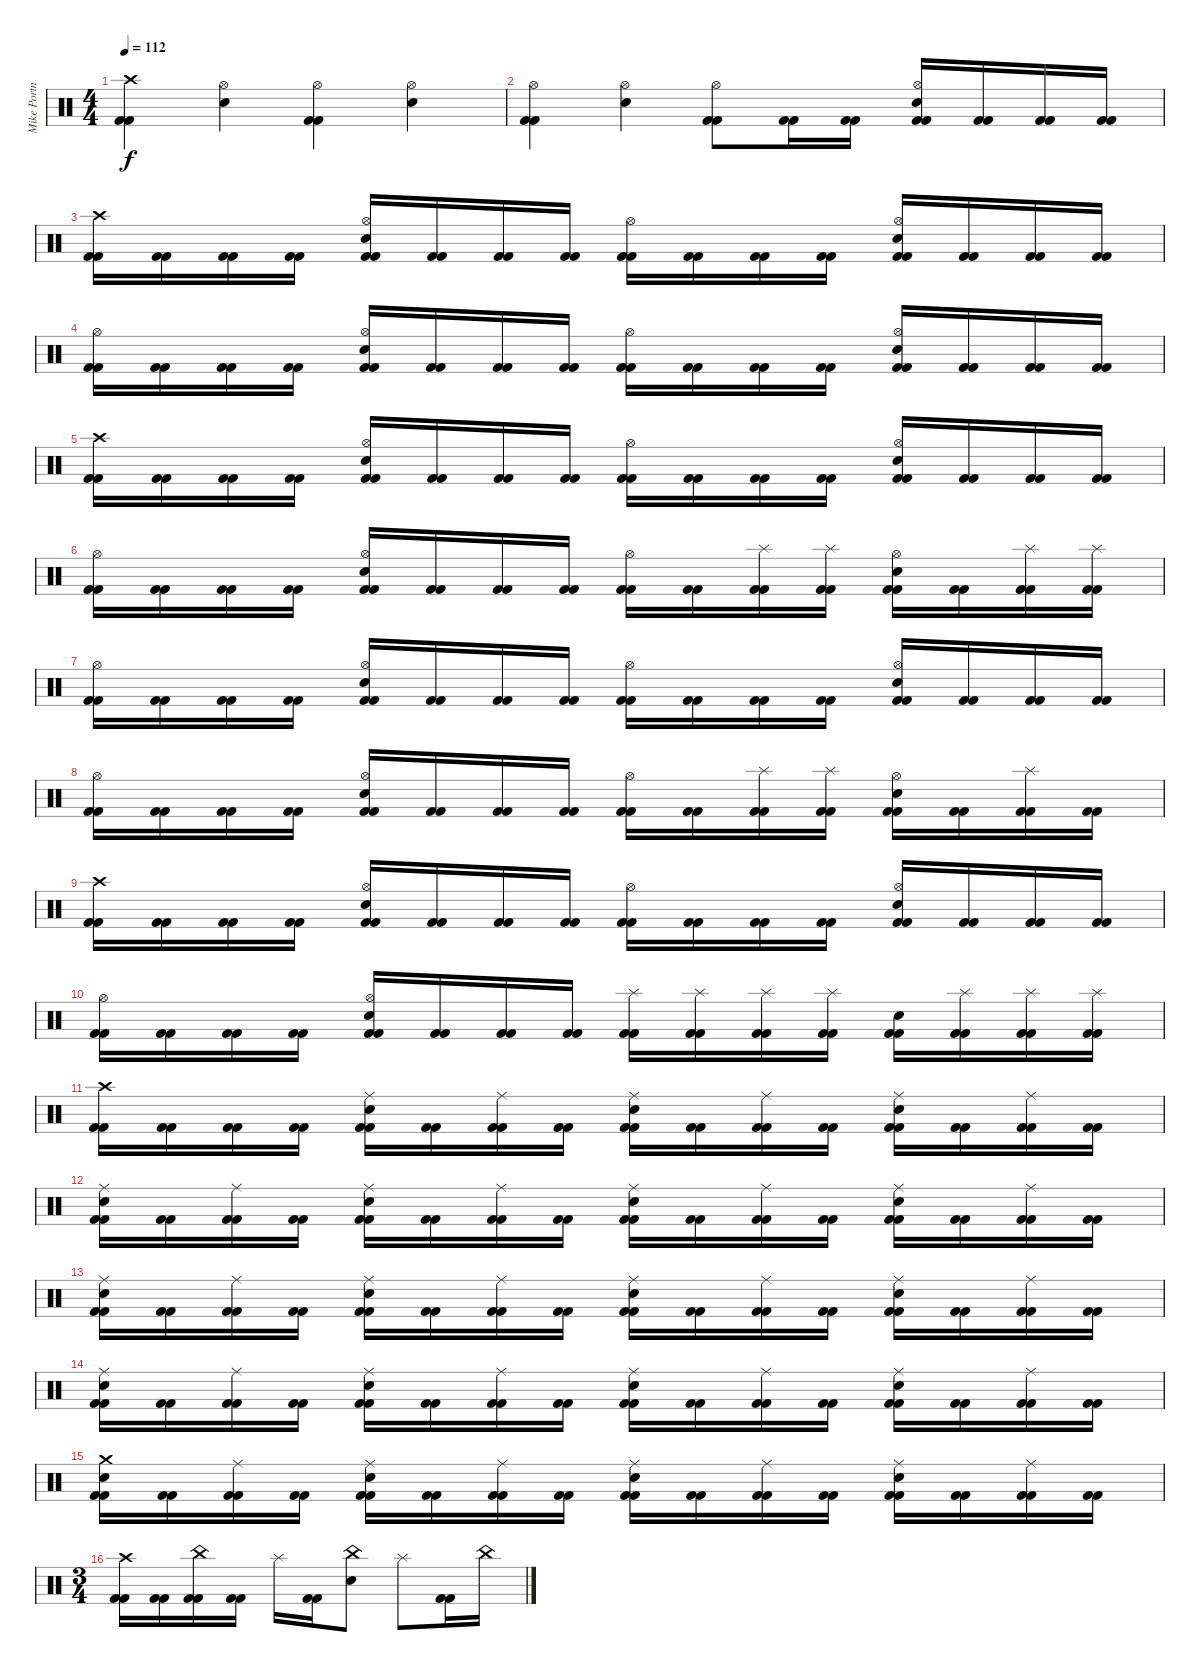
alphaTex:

\track ("Mike Portnoy - Drum" "Mike Portn") {instrument percussion}
\staff {score}
\articulation defaults
\ts (4 4)
\tempo 112
\clef neutral
\ks c
("Crash high (hit)" "Kick (hit) 2" "Kick (hit) 2").4{dy f} ("Hi-Hat (open)" "Snare (hit) 2").4 ("Hi-Hat (open)" "Kick (hit) 2" "Kick (hit) 2").4 ("Hi-Hat (open)" "Snare (hit) 2").4 |
("Hi-Hat (open)" "Kick (hit) 2" "Kick (hit) 2").4 ("Hi-Hat (open)" "Snare (hit) 2").4 ("Hi-Hat (open)" "Kick (hit) 2" "Kick (hit) 2").8 ("Kick (hit) 2" "Kick (hit) 2").16 ("Kick (hit) 2" "Kick (hit) 2").16 ("Hi-Hat (open)" "Snare (hit) 2" "Kick (hit) 2" "Kick (hit) 2").16 ("Kick (hit) 2" "Kick (hit) 2").16 ("Kick (hit) 2" "Kick (hit) 2").16 ("Kick (hit) 2" "Kick (hit) 2").16 |
("Crash high (hit)" "Kick (hit) 2" "Kick (hit) 2").16 ("Kick (hit) 2" "Kick (hit) 2").16 ("Kick (hit) 2" "Kick (hit) 2").16 ("Kick (hit) 2" "Kick (hit) 2").16 ("Hi-Hat (open)" "Snare (hit) 2" "Kick (hit) 2" "Kick (hit) 2").16 ("Kick (hit) 2" "Kick (hit) 2").16 ("Kick (hit) 2" "Kick (hit) 2").16 ("Kick (hit) 2" "Kick (hit) 2").16 ("Hi-Hat (open)" "Kick (hit) 2" "Kick (hit) 2").16 ("Kick (hit) 2" "Kick (hit) 2").16 ("Kick (hit) 2" "Kick (hit) 2").16 ("Kick (hit) 2" "Kick (hit) 2").16 ("Hi-Hat (open)" "Snare (hit) 2" "Kick (hit) 2" "Kick (hit) 2").16 ("Kick (hit) 2" "Kick (hit) 2").16 ("Kick (hit) 2" "Kick (hit) 2").16 ("Kick (hit) 2" "Kick (hit) 2").16 |
("Hi-Hat (open)" "Kick (hit) 2" "Kick (hit) 2").16 ("Kick (hit) 2" "Kick (hit) 2").16 ("Kick (hit) 2" "Kick (hit) 2").16 ("Kick (hit) 2" "Kick (hit) 2").16 ("Hi-Hat (open)" "Snare (hit) 2" "Kick (hit) 2" "Kick (hit) 2").16 ("Kick (hit) 2" "Kick (hit) 2").16 ("Kick (hit) 2" "Kick (hit) 2").16 ("Kick (hit) 2" "Kick (hit) 2").16 ("Hi-Hat (open)" "Kick (hit) 2" "Kick (hit) 2").16 ("Kick (hit) 2" "Kick (hit) 2").16 ("Kick (hit) 2" "Kick (hit) 2").16 ("Kick (hit) 2" "Kick (hit) 2").16 ("Hi-Hat (open)" "Snare (hit) 2" "Kick (hit) 2" "Kick (hit) 2").16 ("Kick (hit) 2" "Kick (hit) 2").16 ("Kick (hit) 2" "Kick (hit) 2").16 ("Kick (hit) 2" "Kick (hit) 2").16 |
("Crash high (hit)" "Kick (hit) 2" "Kick (hit) 2").16 ("Kick (hit) 2" "Kick (hit) 2").16 ("Kick (hit) 2" "Kick (hit) 2").16 ("Kick (hit) 2" "Kick (hit) 2").16 ("Hi-Hat (open)" "Snare (hit) 2" "Kick (hit) 2" "Kick (hit) 2").16 ("Kick (hit) 2" "Kick (hit) 2").16 ("Kick (hit) 2" "Kick (hit) 2").16 ("Kick (hit) 2" "Kick (hit) 2").16 ("Hi-Hat (open)" "Kick (hit) 2" "Kick (hit) 2").16 ("Kick (hit) 2" "Kick (hit) 2").16 ("Kick (hit) 2" "Kick (hit) 2").16 ("Kick (hit) 2" "Kick (hit) 2").16 ("Hi-Hat (open)" "Snare (hit) 2" "Kick (hit) 2" "Kick (hit) 2").16 ("Kick (hit) 2" "Kick (hit) 2").16 ("Kick (hit) 2" "Kick (hit) 2").16 ("Kick (hit) 2" "Kick (hit) 2").16 |
("Hi-Hat (open)" "Kick (hit) 2" "Kick (hit) 2").16 ("Kick (hit) 2" "Kick (hit) 2").16 ("Kick (hit) 2" "Kick (hit) 2").16 ("Kick (hit) 2" "Kick (hit) 2").16 ("Hi-Hat (open)" "Snare (hit) 2" "Kick (hit) 2" "Kick (hit) 2").16 ("Kick (hit) 2" "Kick (hit) 2").16 ("Kick (hit) 2" "Kick (hit) 2").16 ("Kick (hit) 2" "Kick (hit) 2").16 ("Hi-Hat (open)" "Kick (hit) 2" "Kick (hit) 2").16 ("Kick (hit) 2" "Kick (hit) 2").16 ("Splash (hit)" "Kick (hit) 2" "Kick (hit) 2").16 ("Splash (hit)" "Kick (hit) 2" "Kick (hit) 2").16 ("Hi-Hat (open)" "Snare (hit) 2" "Kick (hit) 2" "Kick (hit) 2").16 ("Kick (hit) 2" "Kick (hit) 2").16 ("Splash (hit)" "Kick (hit) 2" "Kick (hit) 2").16 ("Splash (hit)" "Kick (hit) 2" "Kick (hit) 2").16 |
("Hi-Hat (open)" "Kick (hit) 2" "Kick (hit) 2").16 ("Kick (hit) 2" "Kick (hit) 2").16 ("Kick (hit) 2" "Kick (hit) 2").16 ("Kick (hit) 2" "Kick (hit) 2").16 ("Hi-Hat (open)" "Snare (hit) 2" "Kick (hit) 2" "Kick (hit) 2").16 ("Kick (hit) 2" "Kick (hit) 2").16 ("Kick (hit) 2" "Kick (hit) 2").16 ("Kick (hit) 2" "Kick (hit) 2").16 ("Hi-Hat (open)" "Kick (hit) 2" "Kick (hit) 2").16 ("Kick (hit) 2" "Kick (hit) 2").16 ("Kick (hit) 2" "Kick (hit) 2").16 ("Kick (hit) 2" "Kick (hit) 2").16 ("Hi-Hat (open)" "Snare (hit) 2" "Kick (hit) 2" "Kick (hit) 2").16 ("Kick (hit) 2" "Kick (hit) 2").16 ("Kick (hit) 2" "Kick (hit) 2").16 ("Kick (hit) 2" "Kick (hit) 2").16 |
("Hi-Hat (open)" "Kick (hit) 2" "Kick (hit) 2").16 ("Kick (hit) 2" "Kick (hit) 2").16 ("Kick (hit) 2" "Kick (hit) 2").16 ("Kick (hit) 2" "Kick (hit) 2").16 ("Hi-Hat (open)" "Snare (hit) 2" "Kick (hit) 2" "Kick (hit) 2").16 ("Kick (hit) 2" "Kick (hit) 2").16 ("Kick (hit) 2" "Kick (hit) 2").16 ("Kick (hit) 2" "Kick (hit) 2").16 ("Hi-Hat (open)" "Kick (hit) 2" "Kick (hit) 2").16 ("Kick (hit) 2" "Kick (hit) 2").16 ("Splash (hit)" "Kick (hit) 2" "Kick (hit) 2").16 ("Splash (hit)" "Kick (hit) 2" "Kick (hit) 2").16 ("Hi-Hat (open)" "Snare (hit) 2" "Kick (hit) 2" "Kick (hit) 2").16 ("Kick (hit) 2" "Kick (hit) 2").16 ("Splash (hit)" "Kick (hit) 2" "Kick (hit) 2").16 ("Kick (hit) 2" "Kick (hit) 2").16 |
("Crash high (hit)" "Kick (hit) 2" "Kick (hit) 2").16 ("Kick (hit) 2" "Kick (hit) 2").16 ("Kick (hit) 2" "Kick (hit) 2").16 ("Kick (hit) 2" "Kick (hit) 2").16 ("Hi-Hat (open)" "Snare (hit) 2" "Kick (hit) 2" "Kick (hit) 2").16 ("Kick (hit) 2" "Kick (hit) 2").16 ("Kick (hit) 2" "Kick (hit) 2").16 ("Kick (hit) 2" "Kick (hit) 2").16 ("Hi-Hat (open)" "Kick (hit) 2" "Kick (hit) 2").16 ("Kick (hit) 2" "Kick (hit) 2").16 ("Kick (hit) 2" "Kick (hit) 2").16 ("Kick (hit) 2" "Kick (hit) 2").16 ("Hi-Hat (open)" "Snare (hit) 2" "Kick (hit) 2" "Kick (hit) 2").16 ("Kick (hit) 2" "Kick (hit) 2").16 ("Kick (hit) 2" "Kick (hit) 2").16 ("Kick (hit) 2" "Kick (hit) 2").16 |
("Hi-Hat (open)" "Kick (hit) 2" "Kick (hit) 2").16 ("Kick (hit) 2" "Kick (hit) 2").16 ("Kick (hit) 2" "Kick (hit) 2").16 ("Kick (hit) 2" "Kick (hit) 2").16 ("Hi-Hat (open)" "Snare (hit) 2" "Kick (hit) 2" "Kick (hit) 2").16 ("Kick (hit) 2" "Kick (hit) 2").16 ("Kick (hit) 2" "Kick (hit) 2").16 ("Kick (hit) 2" "Kick (hit) 2").16 ("Splash (hit)" "Kick (hit) 2" "Kick (hit) 2").16 ("Splash (hit)" "Kick (hit) 2" "Kick (hit) 2").16 ("Splash (hit)" "Kick (hit) 2" "Kick (hit) 2").16 ("Splash (hit)" "Kick (hit) 2" "Kick (hit) 2").16 ("Snare (hit) 2" "Kick (hit) 2" "Kick (hit) 2").16 ("Splash (hit)" "Kick (hit) 2" "Kick (hit) 2").16 ("Splash (hit)" "Kick (hit) 2" "Kick (hit) 2").16 ("Splash (hit)" "Kick (hit) 2" "Kick (hit) 2").16 |
("Crash high (hit)" "Kick (hit) 2" "Kick (hit) 2").16 ("Kick (hit) 2" "Kick (hit) 2").16 ("Kick (hit) 2" "Kick (hit) 2").16 ("Kick (hit) 2" "Kick (hit) 2").16 ("Ride (middle)" "Snare (hit) 2" "Kick (hit) 2" "Kick (hit) 2").16 ("Kick (hit) 2" "Kick (hit) 2").16 ("Ride (middle)" "Kick (hit) 2" "Kick (hit) 2").16 ("Kick (hit) 2" "Kick (hit) 2").16 ("Ride (middle)" "Snare (hit) 2" "Kick (hit) 2" "Kick (hit) 2").16 ("Kick (hit) 2" "Kick (hit) 2").16 ("Ride (middle)" "Kick (hit) 2" "Kick (hit) 2").16 ("Kick (hit) 2" "Kick (hit) 2").16 ("Ride (middle)" "Snare (hit) 2" "Kick (hit) 2" "Kick (hit) 2").16 ("Kick (hit) 2" "Kick (hit) 2").16 ("Ride (middle)" "Kick (hit) 2" "Kick (hit) 2").16 ("Kick (hit) 2" "Kick (hit) 2").16 |
("Ride (middle)" "Snare (hit) 2" "Kick (hit) 2" "Kick (hit) 2").16 ("Kick (hit) 2" "Kick (hit) 2").16 ("Ride (middle)" "Kick (hit) 2" "Kick (hit) 2").16 ("Kick (hit) 2" "Kick (hit) 2").16 ("Ride (middle)" "Snare (hit) 2" "Kick (hit) 2" "Kick (hit) 2").16 ("Kick (hit) 2" "Kick (hit) 2").16 ("Ride (middle)" "Kick (hit) 2" "Kick (hit) 2").16 ("Kick (hit) 2" "Kick (hit) 2").16 ("Ride (middle)" "Snare (hit) 2" "Kick (hit) 2" "Kick (hit) 2").16 ("Kick (hit) 2" "Kick (hit) 2").16 ("Ride (middle)" "Kick (hit) 2" "Kick (hit) 2").16 ("Kick (hit) 2" "Kick (hit) 2").16 ("Ride (middle)" "Snare (hit) 2" "Kick (hit) 2" "Kick (hit) 2").16 ("Kick (hit) 2" "Kick (hit) 2").16 ("Ride (middle)" "Kick (hit) 2" "Kick (hit) 2").16 ("Kick (hit) 2" "Kick (hit) 2").16 |
("Ride (middle)" "Snare (hit) 2" "Kick (hit) 2" "Kick (hit) 2").16 ("Kick (hit) 2" "Kick (hit) 2").16 ("Ride (middle)" "Kick (hit) 2" "Kick (hit) 2").16 ("Kick (hit) 2" "Kick (hit) 2").16 ("Ride (middle)" "Snare (hit) 2" "Kick (hit) 2" "Kick (hit) 2").16 ("Kick (hit) 2" "Kick (hit) 2").16 ("Ride (middle)" "Kick (hit) 2" "Kick (hit) 2").16 ("Kick (hit) 2" "Kick (hit) 2").16 ("Ride (middle)" "Snare (hit) 2" "Kick (hit) 2" "Kick (hit) 2").16 ("Kick (hit) 2" "Kick (hit) 2").16 ("Ride (middle)" "Kick (hit) 2" "Kick (hit) 2").16 ("Kick (hit) 2" "Kick (hit) 2").16 ("Ride (middle)" "Snare (hit) 2" "Kick (hit) 2" "Kick (hit) 2").16 ("Kick (hit) 2" "Kick (hit) 2").16 ("Ride (middle)" "Kick (hit) 2" "Kick (hit) 2").16 ("Kick (hit) 2" "Kick (hit) 2").16 |
("Ride (middle)" "Snare (hit) 2" "Kick (hit) 2" "Kick (hit) 2").16 ("Kick (hit) 2" "Kick (hit) 2").16 ("Ride (middle)" "Kick (hit) 2" "Kick (hit) 2").16 ("Kick (hit) 2" "Kick (hit) 2").16 ("Ride (middle)" "Snare (hit) 2" "Kick (hit) 2" "Kick (hit) 2").16 ("Kick (hit) 2" "Kick (hit) 2").16 ("Ride (middle)" "Kick (hit) 2" "Kick (hit) 2").16 ("Kick (hit) 2" "Kick (hit) 2").16 ("Ride (middle)" "Snare (hit) 2" "Kick (hit) 2" "Kick (hit) 2").16 ("Kick (hit) 2" "Kick (hit) 2").16 ("Ride (middle)" "Kick (hit) 2" "Kick (hit) 2").16 ("Kick (hit) 2" "Kick (hit) 2").16 ("Ride (middle)" "Snare (hit) 2" "Kick (hit) 2" "Kick (hit) 2").16 ("Kick (hit) 2" "Kick (hit) 2").16 ("Ride (middle)" "Kick (hit) 2" "Kick (hit) 2").16 ("Kick (hit) 2" "Kick (hit) 2").16 |
("Crash medium (hit)" "Snare (hit) 2" "Kick (hit) 2" "Kick (hit) 2").16 ("Kick (hit) 2" "Kick (hit) 2").16 ("Ride (middle)" "Kick (hit) 2" "Kick (hit) 2").16 ("Kick (hit) 2" "Kick (hit) 2").16 ("Ride (middle)" "Snare (hit) 2" "Kick (hit) 2" "Kick (hit) 2").16 ("Kick (hit) 2" "Kick (hit) 2").16 ("Ride (middle)" "Kick (hit) 2" "Kick (hit) 2").16 ("Kick (hit) 2" "Kick (hit) 2").16 ("Ride (middle)" "Snare (hit) 2" "Kick (hit) 2" "Kick (hit) 2").16 ("Kick (hit) 2" "Kick (hit) 2").16 ("Ride (middle)" "Kick (hit) 2" "Kick (hit) 2").16 ("Kick (hit) 2" "Kick (hit) 2").16 ("Ride (middle)" "Snare (hit) 2" "Kick (hit) 2" "Kick (hit) 2").16 ("Kick (hit) 2" "Kick (hit) 2").16 ("Ride (middle)" "Kick (hit) 2" "Kick (hit) 2").16 ("Kick (hit) 2" "Kick (hit) 2").16 |
\ts (3 4)
("Crash high (hit)" "Kick (hit) 2" "Kick (hit) 2").16 ("Kick (hit) 2" "Kick (hit) 2").16 ("China (hit)" "Kick (hit) 2" "Kick (hit) 2").16 ("Kick (hit) 2" "Kick (hit) 2").16 "Splash (hit)".16 ("Kick (hit) 2" "Kick (hit) 2").16 ("China (hit)" "Snare (hit) 2").8 "Splash (hit)".8 ("Kick (hit) 2" "Kick (hit) 2").16 "China (hit)".16
